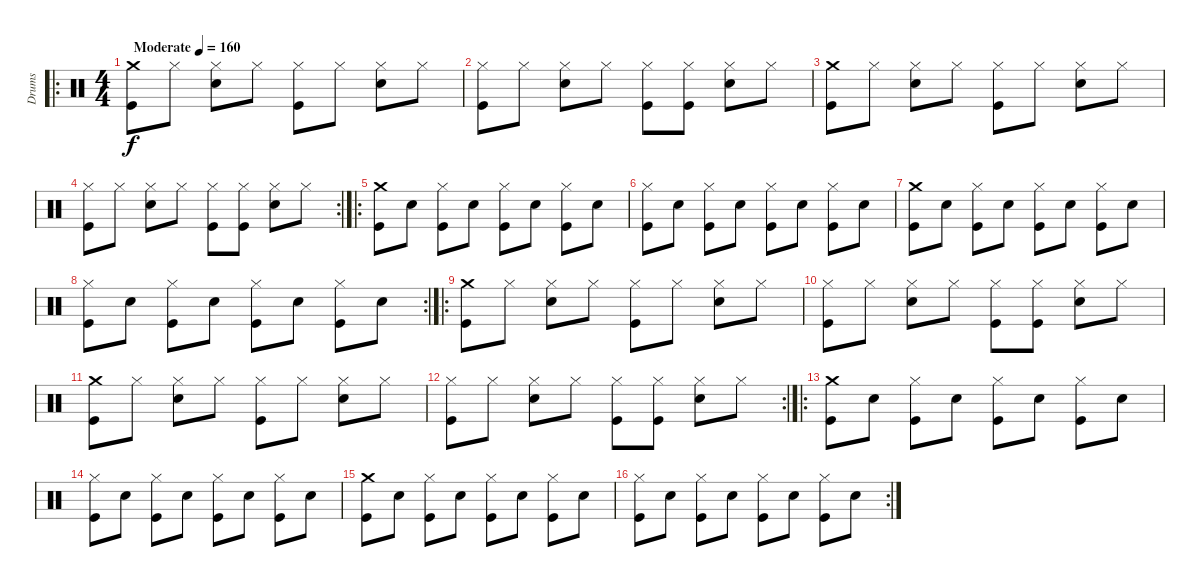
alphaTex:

\track ("Drums" "Drums") {instrument percussion}
\staff {score}
\articulation defaults
\ro
\ts (4 4)
\tempo (160 "Moderate")
\clef neutral
\ks c
("Crash medium (hit)" "Kick (hit)").8{dy f} "Hi-Hat (closed)".8 ("Hi-Hat (closed)" "Electric Snare (hit)").8 "Hi-Hat (closed)".8 ("Hi-Hat (closed)" "Kick (hit)").8 "Hi-Hat (closed)".8 ("Hi-Hat (closed)" "Electric Snare (hit)").8 "Hi-Hat (closed)".8 |
("Hi-Hat (closed)" "Kick (hit)").8 "Hi-Hat (closed)".8 ("Hi-Hat (closed)" "Electric Snare (hit)").8 "Hi-Hat (closed)".8 ("Hi-Hat (closed)" "Kick (hit)").8 ("Hi-Hat (closed)" "Kick (hit)").8 ("Hi-Hat (closed)" "Electric Snare (hit)").8 "Hi-Hat (closed)".8 |
("Crash medium (hit)" "Kick (hit)").8 "Hi-Hat (closed)".8 ("Hi-Hat (closed)" "Electric Snare (hit)").8 "Hi-Hat (closed)".8 ("Hi-Hat (closed)" "Kick (hit)").8 "Hi-Hat (closed)".8 ("Hi-Hat (closed)" "Electric Snare (hit)").8 "Hi-Hat (closed)".8 |
\rc 2
("Hi-Hat (closed)" "Kick (hit)").8 "Hi-Hat (closed)".8 ("Hi-Hat (closed)" "Electric Snare (hit)").8 "Hi-Hat (closed)".8 ("Hi-Hat (closed)" "Kick (hit)").8 ("Hi-Hat (closed)" "Kick (hit)").8 ("Hi-Hat (closed)" "Electric Snare (hit)").8 "Hi-Hat (closed)".8 |
\ro
("Crash medium (hit)" "Kick (hit)").8 "Electric Snare (hit)".8 ("Hi-Hat (closed)" "Kick (hit)").8 "Electric Snare (hit)".8 ("Hi-Hat (closed)" "Kick (hit)").8 "Electric Snare (hit)".8 ("Hi-Hat (closed)" "Kick (hit)").8 "Electric Snare (hit)".8 |
("Hi-Hat (closed)" "Kick (hit)").8 "Electric Snare (hit)".8 ("Hi-Hat (closed)" "Kick (hit)").8 "Electric Snare (hit)".8 ("Hi-Hat (closed)" "Kick (hit)").8 "Electric Snare (hit)".8 ("Hi-Hat (closed)" "Kick (hit)").8 "Electric Snare (hit)".8 |
("Crash medium (hit)" "Kick (hit)").8 "Electric Snare (hit)".8 ("Hi-Hat (closed)" "Kick (hit)").8 "Electric Snare (hit)".8 ("Hi-Hat (closed)" "Kick (hit)").8 "Electric Snare (hit)".8 ("Hi-Hat (closed)" "Kick (hit)").8 "Electric Snare (hit)".8 |
\rc 2
("Hi-Hat (closed)" "Kick (hit)").8 "Electric Snare (hit)".8 ("Hi-Hat (closed)" "Kick (hit)").8 "Electric Snare (hit)".8 ("Hi-Hat (closed)" "Kick (hit)").8 "Electric Snare (hit)".8 ("Hi-Hat (closed)" "Kick (hit)").8 "Electric Snare (hit)".8 |
\ro
("Crash medium (hit)" "Kick (hit)").8 "Hi-Hat (closed)".8 ("Hi-Hat (closed)" "Electric Snare (hit)").8 "Hi-Hat (closed)".8 ("Hi-Hat (closed)" "Kick (hit)").8 "Hi-Hat (closed)".8 ("Hi-Hat (closed)" "Electric Snare (hit)").8 "Hi-Hat (closed)".8 |
("Hi-Hat (closed)" "Kick (hit)").8 "Hi-Hat (closed)".8 ("Hi-Hat (closed)" "Electric Snare (hit)").8 "Hi-Hat (closed)".8 ("Hi-Hat (closed)" "Kick (hit)").8 ("Hi-Hat (closed)" "Kick (hit)").8 ("Hi-Hat (closed)" "Electric Snare (hit)").8 "Hi-Hat (closed)".8 |
("Crash medium (hit)" "Kick (hit)").8 "Hi-Hat (closed)".8 ("Hi-Hat (closed)" "Electric Snare (hit)").8 "Hi-Hat (closed)".8 ("Hi-Hat (closed)" "Kick (hit)").8 "Hi-Hat (closed)".8 ("Hi-Hat (closed)" "Electric Snare (hit)").8 "Hi-Hat (closed)".8 |
\rc 2
("Hi-Hat (closed)" "Kick (hit)").8 "Hi-Hat (closed)".8 ("Hi-Hat (closed)" "Electric Snare (hit)").8 "Hi-Hat (closed)".8 ("Hi-Hat (closed)" "Kick (hit)").8 ("Hi-Hat (closed)" "Kick (hit)").8 ("Hi-Hat (closed)" "Electric Snare (hit)").8 "Hi-Hat (closed)".8 |
\ro
("Crash medium (hit)" "Kick (hit)").8 "Electric Snare (hit)".8 ("Hi-Hat (closed)" "Kick (hit)").8 "Electric Snare (hit)".8 ("Hi-Hat (closed)" "Kick (hit)").8 "Electric Snare (hit)".8 ("Hi-Hat (closed)" "Kick (hit)").8 "Electric Snare (hit)".8 |
("Hi-Hat (closed)" "Kick (hit)").8 "Electric Snare (hit)".8 ("Hi-Hat (closed)" "Kick (hit)").8 "Electric Snare (hit)".8 ("Hi-Hat (closed)" "Kick (hit)").8 "Electric Snare (hit)".8 ("Hi-Hat (closed)" "Kick (hit)").8 "Electric Snare (hit)".8 |
("Crash medium (hit)" "Kick (hit)").8 "Electric Snare (hit)".8 ("Hi-Hat (closed)" "Kick (hit)").8 "Electric Snare (hit)".8 ("Hi-Hat (closed)" "Kick (hit)").8 "Electric Snare (hit)".8 ("Hi-Hat (closed)" "Kick (hit)").8 "Electric Snare (hit)".8 |
\rc 2
("Hi-Hat (closed)" "Kick (hit)").8 "Electric Snare (hit)".8 ("Hi-Hat (closed)" "Kick (hit)").8 "Electric Snare (hit)".8 ("Hi-Hat (closed)" "Kick (hit)").8 "Electric Snare (hit)".8 ("Hi-Hat (closed)" "Kick (hit)").8 "Electric Snare (hit)".8
